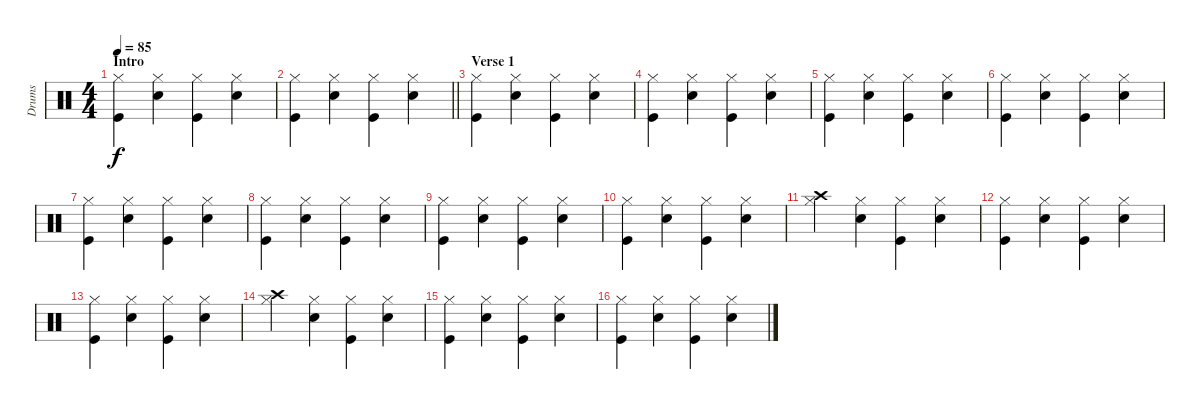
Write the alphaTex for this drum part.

\track ("Drums" "Drums") {instrument percussion}
\staff {score}
\articulation defaults
\ts (4 4)
\section ("" "Intro")
\tempo 85
\clef neutral
\ks c
("Kick (hit)" "Hi-Hat (closed)").4{dy f} ("Snare (hit) 2" "Hi-Hat (closed)").4 ("Kick (hit)" "Hi-Hat (closed)").4 ("Snare (hit) 2" "Hi-Hat (closed)").4 |
\barLineRight lightlight
("Kick (hit)" "Hi-Hat (closed)").4 ("Snare (hit) 2" "Hi-Hat (closed)").4 ("Kick (hit)" "Hi-Hat (closed)").4 ("Snare (hit) 2" "Hi-Hat (closed)").4 |
\section ("" "Verse 1")
("Kick (hit)" "Hi-Hat (closed)").4 ("Snare (hit) 2" "Hi-Hat (closed)").4 ("Kick (hit)" "Hi-Hat (closed)").4 ("Snare (hit) 2" "Hi-Hat (closed)").4 |
("Kick (hit)" "Hi-Hat (closed)").4 ("Snare (hit) 2" "Hi-Hat (closed)").4 ("Kick (hit)" "Hi-Hat (closed)").4 ("Snare (hit) 2" "Hi-Hat (closed)").4 |
("Kick (hit)" "Hi-Hat (closed)").4 ("Snare (hit) 2" "Hi-Hat (closed)").4 ("Kick (hit)" "Hi-Hat (closed)").4 ("Snare (hit) 2" "Hi-Hat (closed)").4 |
("Kick (hit)" "Hi-Hat (closed)").4 ("Snare (hit) 2" "Hi-Hat (closed)").4 ("Kick (hit)" "Hi-Hat (closed)").4 ("Snare (hit) 2" "Hi-Hat (closed)").4 |
("Kick (hit)" "Hi-Hat (closed)").4 ("Snare (hit) 2" "Hi-Hat (closed)").4 ("Kick (hit)" "Hi-Hat (closed)").4 ("Snare (hit) 2" "Hi-Hat (closed)").4 |
("Kick (hit)" "Hi-Hat (closed)").4 ("Snare (hit) 2" "Hi-Hat (closed)").4 ("Kick (hit)" "Hi-Hat (closed)").4 ("Snare (hit) 2" "Hi-Hat (closed)").4 |
("Kick (hit)" "Hi-Hat (closed)").4 ("Snare (hit) 2" "Hi-Hat (closed)").4 ("Kick (hit)" "Hi-Hat (closed)").4 ("Snare (hit) 2" "Hi-Hat (closed)").4 |
("Kick (hit)" "Hi-Hat (closed)").4 ("Snare (hit) 2" "Hi-Hat (closed)").4 ("Kick (hit)" "Hi-Hat (closed)").4 ("Snare (hit) 2" "Hi-Hat (closed)").4 |
("Crash high (hit)" "Hi-Hat (closed)").4 ("Snare (hit) 2" "Hi-Hat (closed)").4 ("Kick (hit)" "Hi-Hat (closed)").4 ("Snare (hit) 2" "Hi-Hat (closed)").4 |
("Kick (hit)" "Hi-Hat (closed)").4 ("Snare (hit) 2" "Hi-Hat (closed)").4 ("Kick (hit)" "Hi-Hat (closed)").4 ("Snare (hit) 2" "Hi-Hat (closed)").4 |
("Kick (hit)" "Hi-Hat (closed)").4 ("Snare (hit) 2" "Hi-Hat (closed)").4 ("Kick (hit)" "Hi-Hat (closed)").4 ("Snare (hit) 2" "Hi-Hat (closed)").4 |
("Crash high (hit)" "Hi-Hat (closed)").4 ("Snare (hit) 2" "Hi-Hat (closed)").4 ("Kick (hit)" "Hi-Hat (closed)").4 ("Snare (hit) 2" "Hi-Hat (closed)").4 |
("Kick (hit)" "Hi-Hat (closed)").4 ("Snare (hit) 2" "Hi-Hat (closed)").4 ("Kick (hit)" "Hi-Hat (closed)").4 ("Snare (hit) 2" "Hi-Hat (closed)").4 |
("Kick (hit)" "Hi-Hat (closed)").4 ("Snare (hit) 2" "Hi-Hat (closed)").4 ("Kick (hit)" "Hi-Hat (closed)").4 ("Snare (hit) 2" "Hi-Hat (closed)").4
